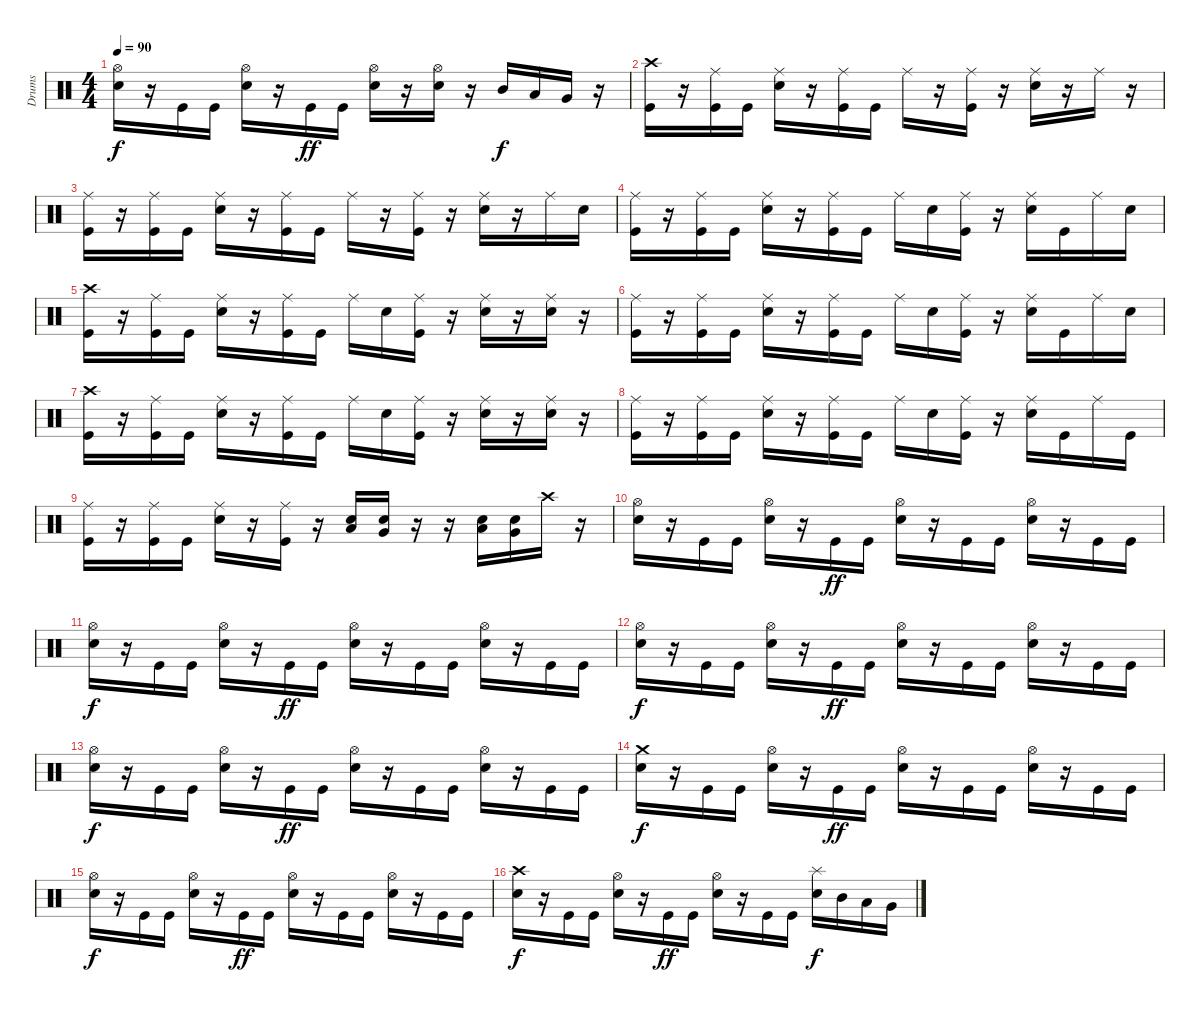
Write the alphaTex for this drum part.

\track ("Drums" "Drums") {instrument percussion}
\staff {score}
\articulation defaults
\ts (4 4)
\tempo 90
\clef neutral
\ks c
("Hi-Hat (open)" "Snare (hit) 2").16{dy f} r.16 "Kick (hit)".16 "Kick (hit)".16 ("Hi-Hat (open)" "Snare (hit) 2").16 r.16 "Kick (hit)".16{dy ff} "Kick (hit)".16 ("Hi-Hat (open)" "Snare (hit) 2").16 r.16 ("Hi-Hat (open)" "Electric Snare (hit)").16 r.16 "Mid Tom (hit)".16{dy f} "Low Tom (hit)".16 "Very Low Tom (hit)".16 r.16 |
("Crash high (hit)" "Kick (hit)").16 r.16 ("Ride (middle)" "Kick (hit)").16 "Kick (hit)".16 ("Ride (middle)" "Snare (hit) 2").16 r.16 ("Ride (middle)" "Kick (hit)").16 "Kick (hit)".16 "Ride (middle)".16 r.16 ("Ride (middle)" "Kick (hit)").16 r.16 ("Ride (middle)" "Snare (hit) 2").16 r.16 "Ride (middle)".16 r.16 |
("Ride (middle)" "Kick (hit)").16 r.16 ("Ride (middle)" "Kick (hit)").16 "Kick (hit)".16 ("Ride (middle)" "Snare (hit) 2").16 r.16 ("Ride (middle)" "Kick (hit)").16 "Kick (hit)".16 "Ride (middle)".16 r.16 ("Ride (middle)" "Kick (hit)").16 r.16 ("Ride (middle)" "Snare (hit) 2").16 r.16 "Ride (middle)".16 "Snare (hit) 2".16 |
("Ride (middle)" "Kick (hit)").16 r.16 ("Ride (middle)" "Kick (hit)").16 "Kick (hit)".16 ("Ride (middle)" "Snare (hit) 2").16 r.16 ("Ride (middle)" "Kick (hit)").16 "Kick (hit)".16 "Ride (middle)".16 "Snare (hit) 2".16 ("Ride (middle)" "Kick (hit)").16 r.16 ("Ride (middle)" "Snare (hit) 2").16 "Kick (hit)".16 "Ride (middle)".16 "Snare (hit) 2".16 |
("Crash high (hit)" "Kick (hit)").16 r.16 ("Ride (middle)" "Kick (hit)").16 "Kick (hit)".16 ("Ride (middle)" "Snare (hit) 2").16 r.16 ("Ride (middle)" "Kick (hit)").16 "Kick (hit)".16 "Ride (middle)".16 "Snare (hit) 2".16 ("Ride (middle)" "Kick (hit)").16 r.16 ("Ride (middle)" "Snare (hit) 2").16 r.16 ("Ride (middle)" "Snare (hit) 2").16 r.16 |
("Ride (middle)" "Kick (hit)").16 r.16 ("Ride (middle)" "Kick (hit)").16 "Kick (hit)".16 ("Ride (middle)" "Snare (hit) 2").16 r.16 ("Ride (middle)" "Kick (hit)").16 "Kick (hit)".16 "Ride (middle)".16 "Snare (hit) 2".16 ("Ride (middle)" "Kick (hit)").16 r.16 ("Ride (middle)" "Snare (hit) 2").16 "Kick (hit)".16 "Ride (middle)".16 "Snare (hit) 2".16 |
("Crash high (hit)" "Kick (hit)").16 r.16 ("Ride (middle)" "Kick (hit)").16 "Kick (hit)".16 ("Ride (middle)" "Snare (hit) 2").16 r.16 ("Ride (middle)" "Kick (hit)").16 "Kick (hit)".16 "Ride (middle)".16 "Snare (hit) 2".16 ("Ride (middle)" "Kick (hit)").16 r.16 ("Ride (middle)" "Snare (hit) 2").16 r.16 ("Ride (middle)" "Snare (hit) 2").16 r.16 |
("Ride (middle)" "Kick (hit)").16 r.16 ("Ride (middle)" "Kick (hit)").16 "Kick (hit)".16 ("Ride (middle)" "Snare (hit) 2").16 r.16 ("Ride (middle)" "Kick (hit)").16 "Kick (hit)".16 "Ride (middle)".16 "Snare (hit) 2".16 ("Ride (middle)" "Kick (hit)").16 r.16 ("Ride (middle)" "Snare (hit) 2").16 "Kick (hit)".16 "Ride (middle)".16 "Kick (hit)".16 |
("Ride (middle)" "Kick (hit)").16 r.16 ("Ride (middle)" "Kick (hit)").16 "Kick (hit)".16 ("Ride (middle)" "Snare (hit) 2").16 r.16 ("Ride (middle)" "Kick (hit)").16 r.16 ("Snare (hit) 2" "Low Tom (hit)").16 ("Very Low Tom (hit)" "Snare (hit) 2").16 r.16 r.16 ("Snare (hit) 2" "Low Tom (hit)").16 ("Snare (hit) 2" "Very Low Tom (hit)").16 "Crash high (hit)".16 r.16 |
("Hi-Hat (open)" "Snare (hit) 2").16 r.16 "Kick (hit)".16 "Kick (hit)".16 ("Hi-Hat (open)" "Snare (hit) 2").16 r.16 "Kick (hit)".16{dy ff} "Kick (hit)".16 ("Hi-Hat (open)" "Snare (hit) 2").16 r.16 "Kick (hit)".16 "Kick (hit)".16 ("Hi-Hat (open)" "Snare (hit) 2").16 r.16 "Kick (hit)".16 "Kick (hit)".16 |
("Hi-Hat (open)" "Snare (hit) 2").16{dy f} r.16 "Kick (hit)".16 "Kick (hit)".16 ("Hi-Hat (open)" "Snare (hit) 2").16 r.16 "Kick (hit)".16{dy ff} "Kick (hit)".16 ("Hi-Hat (open)" "Snare (hit) 2").16 r.16 "Kick (hit)".16 "Kick (hit)".16 ("Hi-Hat (open)" "Snare (hit) 2").16 r.16 "Kick (hit)".16 "Kick (hit)".16 |
("Hi-Hat (open)" "Snare (hit) 2").16{dy f} r.16 "Kick (hit)".16 "Kick (hit)".16 ("Hi-Hat (open)" "Snare (hit) 2").16 r.16 "Kick (hit)".16{dy ff} "Kick (hit)".16 ("Hi-Hat (open)" "Snare (hit) 2").16 r.16 "Kick (hit)".16 "Kick (hit)".16 ("Hi-Hat (open)" "Snare (hit) 2").16 r.16 "Kick (hit)".16 "Kick (hit)".16 |
("Hi-Hat (open)" "Snare (hit) 2").16{dy f} r.16 "Kick (hit)".16 "Kick (hit)".16 ("Hi-Hat (open)" "Snare (hit) 2").16 r.16 "Kick (hit)".16{dy ff} "Kick (hit)".16 ("Hi-Hat (open)" "Snare (hit) 2").16 r.16 "Kick (hit)".16 "Kick (hit)".16 ("Hi-Hat (open)" "Snare (hit) 2").16 r.16 "Kick (hit)".16 "Kick (hit)".16 |
("Crash medium (hit)" "Snare (hit) 2").16{dy f} r.16 "Kick (hit)".16 "Kick (hit)".16 ("Hi-Hat (open)" "Snare (hit) 2").16 r.16 "Kick (hit)".16{dy ff} "Kick (hit)".16 ("Hi-Hat (open)" "Snare (hit) 2").16 r.16 "Kick (hit)".16 "Kick (hit)".16 ("Hi-Hat (open)" "Snare (hit) 2").16 r.16 "Kick (hit)".16 "Kick (hit)".16 |
("Hi-Hat (open)" "Snare (hit) 2").16{dy f} r.16 "Kick (hit)".16 "Kick (hit)".16 ("Hi-Hat (open)" "Snare (hit) 2").16 r.16 "Kick (hit)".16{dy ff} "Kick (hit)".16 ("Hi-Hat (open)" "Snare (hit) 2").16 r.16 "Kick (hit)".16 "Kick (hit)".16 ("Hi-Hat (open)" "Snare (hit) 2").16 r.16 "Kick (hit)".16 "Kick (hit)".16 |
("Crash high (hit)" "Snare (hit) 2").16{dy f} r.16 "Kick (hit)".16 "Kick (hit)".16 ("Hi-Hat (open)" "Snare (hit) 2").16 r.16 "Kick (hit)".16{dy ff} "Kick (hit)".16 ("Hi-Hat (open)" "Snare (hit) 2").16 r.16 "Kick (hit)".16 "Kick (hit)".16 ("Splash (hit)" "Snare (hit) 2").16{dy f} "Mid Tom (hit)".16 "Low Tom (hit)".16 "Very Low Tom (hit)".16
